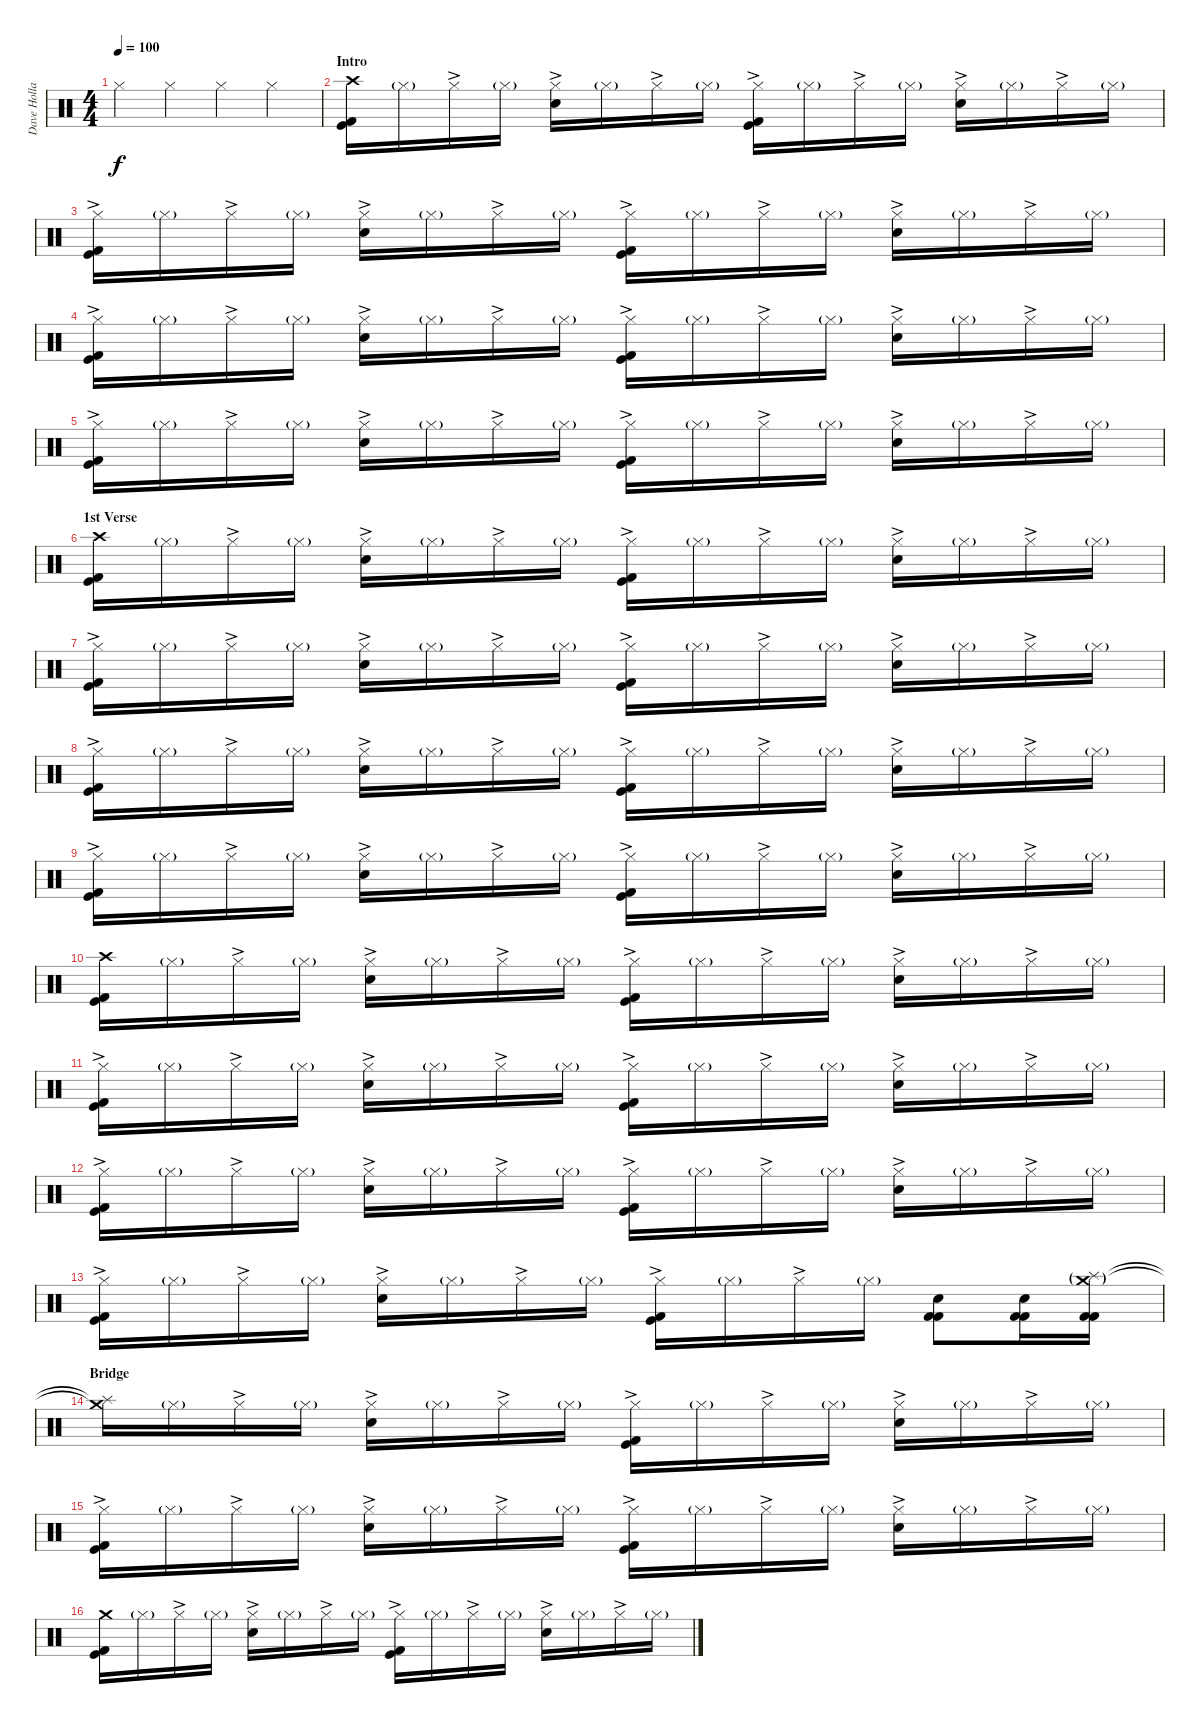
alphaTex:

\track ("Dave Holland" "Dave Holla") {instrument percussion}
\staff {score}
\articulation defaults
\ts (4 4)
\tempo 100
\clef neutral
\ks c "Hi-Hat (closed)".4{dy f} "Hi-Hat (closed)".4 "Hi-Hat (closed)".4 "Hi-Hat (closed)".4
|
\section ("" "Intro")
("Crash high (hit)" "Kick (hit)" "Kick (hit) 2").16 "Hi-Hat (closed)"{g}.16 "Hi-Hat (closed)"{ac}.16 "Hi-Hat (closed)"{g}.16 ("Hi-Hat (closed)"{ac} "Electric Snare (hit)").16 "Hi-Hat (closed)"{g}.16 "Hi-Hat (closed)"{ac}.16 "Hi-Hat (closed)"{g}.16 ("Hi-Hat (closed)"{ac} "Kick (hit)" "Kick (hit) 2").16 "Hi-Hat (closed)"{g}.16 "Hi-Hat (closed)"{ac}.16 "Hi-Hat (closed)"{g}.16 ("Hi-Hat (closed)"{ac} "Electric Snare (hit)").16 "Hi-Hat (closed)"{g}.16 "Hi-Hat (closed)"{ac}.16 "Hi-Hat (closed)"{g}.16 |
("Hi-Hat (closed)"{ac} "Kick (hit)" "Kick (hit) 2").16 "Hi-Hat (closed)"{g}.16 "Hi-Hat (closed)"{ac}.16 "Hi-Hat (closed)"{g}.16 ("Hi-Hat (closed)"{ac} "Electric Snare (hit)").16 "Hi-Hat (closed)"{g}.16 "Hi-Hat (closed)"{ac}.16 "Hi-Hat (closed)"{g}.16 ("Hi-Hat (closed)"{ac} "Kick (hit)" "Kick (hit) 2").16 "Hi-Hat (closed)"{g}.16 "Hi-Hat (closed)"{ac}.16 "Hi-Hat (closed)"{g}.16 ("Hi-Hat (closed)"{ac} "Electric Snare (hit)").16 "Hi-Hat (closed)"{g}.16 "Hi-Hat (closed)"{ac}.16 "Hi-Hat (closed)"{g}.16 |
("Hi-Hat (closed)"{ac} "Kick (hit)" "Kick (hit) 2").16 "Hi-Hat (closed)"{g}.16 "Hi-Hat (closed)"{ac}.16 "Hi-Hat (closed)"{g}.16 ("Hi-Hat (closed)"{ac} "Electric Snare (hit)").16 "Hi-Hat (closed)"{g}.16 "Hi-Hat (closed)"{ac}.16 "Hi-Hat (closed)"{g}.16 ("Hi-Hat (closed)"{ac} "Kick (hit)" "Kick (hit) 2").16 "Hi-Hat (closed)"{g}.16 "Hi-Hat (closed)"{ac}.16 "Hi-Hat (closed)"{g}.16 ("Hi-Hat (closed)"{ac} "Electric Snare (hit)").16 "Hi-Hat (closed)"{g}.16 "Hi-Hat (closed)"{ac}.16 "Hi-Hat (closed)"{g}.16 |
("Hi-Hat (closed)"{ac} "Kick (hit)" "Kick (hit) 2").16 "Hi-Hat (closed)"{g}.16 "Hi-Hat (closed)"{ac}.16 "Hi-Hat (closed)"{g}.16 ("Hi-Hat (closed)"{ac} "Electric Snare (hit)").16 "Hi-Hat (closed)"{g}.16 "Hi-Hat (closed)"{ac}.16 "Hi-Hat (closed)"{g}.16 ("Hi-Hat (closed)"{ac} "Kick (hit)" "Kick (hit) 2").16 "Hi-Hat (closed)"{g}.16 "Hi-Hat (closed)"{ac}.16 "Hi-Hat (closed)"{g}.16 ("Hi-Hat (closed)"{ac} "Electric Snare (hit)").16 "Hi-Hat (closed)"{g}.16 "Hi-Hat (closed)"{ac}.16 "Hi-Hat (closed)"{g}.16 |
\section ("" "1st Verse")
("Crash high (hit)" "Kick (hit)" "Kick (hit) 2").16 "Hi-Hat (closed)"{g}.16 "Hi-Hat (closed)"{ac}.16 "Hi-Hat (closed)"{g}.16 ("Hi-Hat (closed)"{ac} "Electric Snare (hit)").16 "Hi-Hat (closed)"{g}.16 "Hi-Hat (closed)"{ac}.16 "Hi-Hat (closed)"{g}.16 ("Hi-Hat (closed)"{ac} "Kick (hit)" "Kick (hit) 2").16 "Hi-Hat (closed)"{g}.16 "Hi-Hat (closed)"{ac}.16 "Hi-Hat (closed)"{g}.16 ("Hi-Hat (closed)"{ac} "Electric Snare (hit)").16 "Hi-Hat (closed)"{g}.16 "Hi-Hat (closed)"{ac}.16 "Hi-Hat (closed)"{g}.16 |
("Hi-Hat (closed)"{ac} "Kick (hit)" "Kick (hit) 2").16 "Hi-Hat (closed)"{g}.16 "Hi-Hat (closed)"{ac}.16 "Hi-Hat (closed)"{g}.16 ("Hi-Hat (closed)"{ac} "Electric Snare (hit)").16 "Hi-Hat (closed)"{g}.16 "Hi-Hat (closed)"{ac}.16 "Hi-Hat (closed)"{g}.16 ("Hi-Hat (closed)"{ac} "Kick (hit)" "Kick (hit) 2").16 "Hi-Hat (closed)"{g}.16 "Hi-Hat (closed)"{ac}.16 "Hi-Hat (closed)"{g}.16 ("Hi-Hat (closed)"{ac} "Electric Snare (hit)").16 "Hi-Hat (closed)"{g}.16 "Hi-Hat (closed)"{ac}.16 "Hi-Hat (closed)"{g}.16 |
("Hi-Hat (closed)"{ac} "Kick (hit)" "Kick (hit) 2").16 "Hi-Hat (closed)"{g}.16 "Hi-Hat (closed)"{ac}.16 "Hi-Hat (closed)"{g}.16 ("Hi-Hat (closed)"{ac} "Electric Snare (hit)").16 "Hi-Hat (closed)"{g}.16 "Hi-Hat (closed)"{ac}.16 "Hi-Hat (closed)"{g}.16 ("Hi-Hat (closed)"{ac} "Kick (hit)" "Kick (hit) 2").16 "Hi-Hat (closed)"{g}.16 "Hi-Hat (closed)"{ac}.16 "Hi-Hat (closed)"{g}.16 ("Hi-Hat (closed)"{ac} "Electric Snare (hit)").16 "Hi-Hat (closed)"{g}.16 "Hi-Hat (closed)"{ac}.16 "Hi-Hat (closed)"{g}.16 |
("Hi-Hat (closed)"{ac} "Kick (hit)" "Kick (hit) 2").16 "Hi-Hat (closed)"{g}.16 "Hi-Hat (closed)"{ac}.16 "Hi-Hat (closed)"{g}.16 ("Hi-Hat (closed)"{ac} "Electric Snare (hit)").16 "Hi-Hat (closed)"{g}.16 "Hi-Hat (closed)"{ac}.16 "Hi-Hat (closed)"{g}.16 ("Hi-Hat (closed)"{ac} "Kick (hit)" "Kick (hit) 2").16 "Hi-Hat (closed)"{g}.16 "Hi-Hat (closed)"{ac}.16 "Hi-Hat (closed)"{g}.16 ("Hi-Hat (closed)"{ac} "Electric Snare (hit)").16 "Hi-Hat (closed)"{g}.16 "Hi-Hat (closed)"{ac}.16 "Hi-Hat (closed)"{g}.16 |
("Crash high (hit)" "Kick (hit)" "Kick (hit) 2").16 "Hi-Hat (closed)"{g}.16 "Hi-Hat (closed)"{ac}.16 "Hi-Hat (closed)"{g}.16 ("Hi-Hat (closed)"{ac} "Electric Snare (hit)").16 "Hi-Hat (closed)"{g}.16 "Hi-Hat (closed)"{ac}.16 "Hi-Hat (closed)"{g}.16 ("Hi-Hat (closed)"{ac} "Kick (hit)" "Kick (hit) 2").16 "Hi-Hat (closed)"{g}.16 "Hi-Hat (closed)"{ac}.16 "Hi-Hat (closed)"{g}.16 ("Hi-Hat (closed)"{ac} "Electric Snare (hit)").16 "Hi-Hat (closed)"{g}.16 "Hi-Hat (closed)"{ac}.16 "Hi-Hat (closed)"{g}.16 |
("Hi-Hat (closed)"{ac} "Kick (hit)" "Kick (hit) 2").16 "Hi-Hat (closed)"{g}.16 "Hi-Hat (closed)"{ac}.16 "Hi-Hat (closed)"{g}.16 ("Hi-Hat (closed)"{ac} "Electric Snare (hit)").16 "Hi-Hat (closed)"{g}.16 "Hi-Hat (closed)"{ac}.16 "Hi-Hat (closed)"{g}.16 ("Hi-Hat (closed)"{ac} "Kick (hit)" "Kick (hit) 2").16 "Hi-Hat (closed)"{g}.16 "Hi-Hat (closed)"{ac}.16 "Hi-Hat (closed)"{g}.16 ("Hi-Hat (closed)"{ac} "Electric Snare (hit)").16 "Hi-Hat (closed)"{g}.16 "Hi-Hat (closed)"{ac}.16 "Hi-Hat (closed)"{g}.16 |
("Hi-Hat (closed)"{ac} "Kick (hit)" "Kick (hit) 2").16 "Hi-Hat (closed)"{g}.16 "Hi-Hat (closed)"{ac}.16 "Hi-Hat (closed)"{g}.16 ("Hi-Hat (closed)"{ac} "Electric Snare (hit)").16 "Hi-Hat (closed)"{g}.16 "Hi-Hat (closed)"{ac}.16 "Hi-Hat (closed)"{g}.16 ("Hi-Hat (closed)"{ac} "Kick (hit)" "Kick (hit) 2").16 "Hi-Hat (closed)"{g}.16 "Hi-Hat (closed)"{ac}.16 "Hi-Hat (closed)"{g}.16 ("Hi-Hat (closed)"{ac} "Electric Snare (hit)").16 "Hi-Hat (closed)"{g}.16 "Hi-Hat (closed)"{ac}.16 "Hi-Hat (closed)"{g}.16 |
("Hi-Hat (closed)"{ac} "Kick (hit)" "Kick (hit) 2").16 "Hi-Hat (closed)"{g}.16 "Hi-Hat (closed)"{ac}.16 "Hi-Hat (closed)"{g}.16 ("Hi-Hat (closed)"{ac} "Electric Snare (hit)").16 "Hi-Hat (closed)"{g}.16 "Hi-Hat (closed)"{ac}.16 "Hi-Hat (closed)"{g}.16 ("Hi-Hat (closed)"{ac} "Kick (hit)" "Kick (hit) 2").16 "Hi-Hat (closed)"{g}.16 "Hi-Hat (closed)"{ac}.16 "Hi-Hat (closed)"{g}.16 ("Electric Snare (hit)" "Kick (hit) 2" "Kick (hit) 2").8 ("Electric Snare (hit)" "Kick (hit) 2" "Kick (hit) 2").16 ("Crash medium (hit)"{g} "Splash (hit)"{g} "Kick (hit) 2" "Kick (hit) 2").16 |
\section ("" "Bridge")
("Crash medium (hit)"{t} "Splash (hit)"{t}).16 "Hi-Hat (closed)"{g}.16 "Hi-Hat (closed)"{ac}.16 "Hi-Hat (closed)"{g}.16 ("Hi-Hat (closed)"{ac} "Electric Snare (hit)").16 "Hi-Hat (closed)"{g}.16 "Hi-Hat (closed)"{ac}.16 "Hi-Hat (closed)"{g}.16 ("Hi-Hat (closed)"{ac} "Kick (hit)" "Kick (hit) 2").16 "Hi-Hat (closed)"{g}.16 "Hi-Hat (closed)"{ac}.16 "Hi-Hat (closed)"{g}.16 ("Hi-Hat (closed)"{ac} "Electric Snare (hit)").16 "Hi-Hat (closed)"{g}.16 "Hi-Hat (closed)"{ac}.16 "Hi-Hat (closed)"{g}.16 |
("Hi-Hat (closed)"{ac} "Kick (hit)" "Kick (hit) 2").16 "Hi-Hat (closed)"{g}.16 "Hi-Hat (closed)"{ac}.16 "Hi-Hat (closed)"{g}.16 ("Hi-Hat (closed)"{ac} "Electric Snare (hit)").16 "Hi-Hat (closed)"{g}.16 "Hi-Hat (closed)"{ac}.16 "Hi-Hat (closed)"{g}.16 ("Hi-Hat (closed)"{ac} "Kick (hit)" "Kick (hit) 2").16 "Hi-Hat (closed)"{g}.16 "Hi-Hat (closed)"{ac}.16 "Hi-Hat (closed)"{g}.16 ("Hi-Hat (closed)"{ac} "Electric Snare (hit)").16 "Hi-Hat (closed)"{g}.16 "Hi-Hat (closed)"{ac}.16 "Hi-Hat (closed)"{g}.16 |
("Crash medium (hit)" "Kick (hit)" "Kick (hit) 2").16 "Hi-Hat (closed)"{g}.16 "Hi-Hat (closed)"{ac}.16 "Hi-Hat (closed)"{g}.16 ("Hi-Hat (closed)"{ac} "Electric Snare (hit)").16 "Hi-Hat (closed)"{g}.16 "Hi-Hat (closed)"{ac}.16 "Hi-Hat (closed)"{g}.16 ("Hi-Hat (closed)"{ac} "Kick (hit)" "Kick (hit) 2").16 "Hi-Hat (closed)"{g}.16 "Hi-Hat (closed)"{ac}.16 "Hi-Hat (closed)"{g}.16 ("Hi-Hat (closed)"{ac} "Electric Snare (hit)").16 "Hi-Hat (closed)"{g}.16 "Hi-Hat (closed)"{ac}.16 "Hi-Hat (closed)"{g}.16
